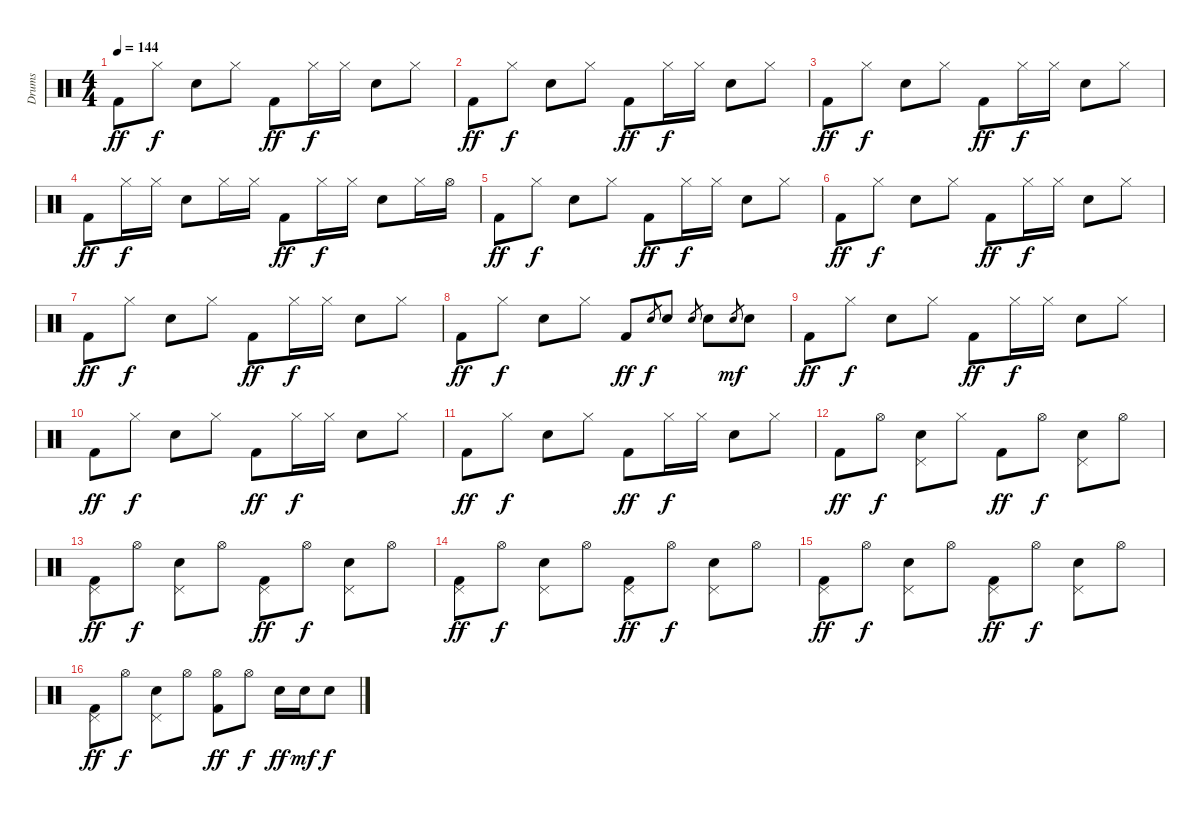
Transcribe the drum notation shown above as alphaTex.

\track ("Drums" "Drums") {instrument percussion}
\staff {score}
\articulation defaults
\ts (4 4)
\tempo 144
\clef neutral
\ks c "Kick (hit) 2".8{dy ff} "Hi-Hat (closed)".8{dy f} "Snare (hit) 2".8 "Hi-Hat (closed)".8 "Kick (hit) 2".8{dy ff} "Hi-Hat (closed)".16{dy f} "Hi-Hat (closed)".16 "Snare (hit) 2".8 "Hi-Hat (closed)".8
|
"Kick (hit) 2".8{dy ff} "Hi-Hat (closed)".8{dy f} "Snare (hit) 2".8 "Hi-Hat (closed)".8 "Kick (hit) 2".8{dy ff} "Hi-Hat (closed)".16{dy f} "Hi-Hat (closed)".16 "Snare (hit) 2".8 "Hi-Hat (closed)".8 |
"Kick (hit) 2".8{dy ff} "Hi-Hat (closed)".8{dy f} "Snare (hit) 2".8 "Hi-Hat (closed)".8 "Kick (hit) 2".8{dy ff} "Hi-Hat (closed)".16{dy f} "Hi-Hat (closed)".16 "Snare (hit) 2".8 "Hi-Hat (closed)".8 |
"Kick (hit) 2".8{dy ff} "Hi-Hat (closed)".16{dy f} "Hi-Hat (closed)".16 "Snare (hit) 2".8 "Hi-Hat (closed)".16 "Hi-Hat (closed)".16 "Kick (hit) 2".8{dy ff} "Hi-Hat (closed)".16{dy f} "Hi-Hat (closed)".16 "Snare (hit) 2".8 "Hi-Hat (closed)".16 "Hi-Hat (open)".16 |
"Kick (hit) 2".8{dy ff} "Hi-Hat (closed)".8{dy f} "Snare (hit) 2".8 "Hi-Hat (closed)".8 "Kick (hit) 2".8{dy ff} "Hi-Hat (closed)".16{dy f} "Hi-Hat (closed)".16 "Snare (hit) 2".8 "Hi-Hat (closed)".8 |
"Kick (hit) 2".8{dy ff} "Hi-Hat (closed)".8{dy f} "Snare (hit) 2".8 "Hi-Hat (closed)".8 "Kick (hit) 2".8{dy ff} "Hi-Hat (closed)".16{dy f} "Hi-Hat (closed)".16 "Snare (hit) 2".8 "Hi-Hat (closed)".8 |
"Kick (hit) 2".8{dy ff} "Hi-Hat (closed)".8{dy f} "Snare (hit) 2".8 "Hi-Hat (closed)".8 "Kick (hit) 2".8{dy ff} "Hi-Hat (closed)".16{dy f} "Hi-Hat (closed)".16 "Snare (hit) 2".8 "Hi-Hat (closed)".8 |
"Kick (hit) 2".8{dy ff} "Hi-Hat (closed)".8{dy f} "Snare (hit) 2".8 "Hi-Hat (closed)".8 "Kick (hit) 2".8{dy ff} "Snare (hit) 2".8{gr dy f} "Snare (hit) 2".8 "Snare (hit) 2".8{gr} "Snare (hit) 2".8 "Snare (hit) 2".8{gr dy mf} "Snare (hit) 2".8 |
"Kick (hit) 2".8{dy ff} "Hi-Hat (closed)".8{dy f} "Snare (hit) 2".8 "Hi-Hat (closed)".8 "Kick (hit) 2".8{dy ff} "Hi-Hat (closed)".16{dy f} "Hi-Hat (closed)".16 "Snare (hit) 2".8 "Hi-Hat (closed)".8 |
"Kick (hit) 2".8{dy ff} "Hi-Hat (closed)".8{dy f} "Snare (hit) 2".8 "Hi-Hat (closed)".8 "Kick (hit) 2".8{dy ff} "Hi-Hat (closed)".16{dy f} "Hi-Hat (closed)".16 "Snare (hit) 2".8 "Hi-Hat (closed)".8 |
"Kick (hit) 2".8{dy ff} "Hi-Hat (closed)".8{dy f} "Snare (hit) 2".8 "Hi-Hat (closed)".8 "Kick (hit) 2".8{dy ff} "Hi-Hat (closed)".16{dy f} "Hi-Hat (closed)".16 "Snare (hit) 2".8 "Hi-Hat (closed)".8 |
"Kick (hit) 2".8{dy ff} "Hi-Hat (open)".8{dy f} ("Pedal Hi-Hat (hit)" "Snare (hit) 2").8 "Hi-Hat (closed)".8 "Kick (hit) 2".8{dy ff} "Hi-Hat (open)".8{dy f} ("Pedal Hi-Hat (hit)" "Snare (hit) 2").8 "Hi-Hat (open)".8 |
("Pedal Hi-Hat (hit)" "Kick (hit) 2").8{dy ff} "Hi-Hat (open)".8{dy f} ("Pedal Hi-Hat (hit)" "Snare (hit) 2").8 "Hi-Hat (open)".8 ("Pedal Hi-Hat (hit)" "Kick (hit) 2").8{dy ff} "Hi-Hat (open)".8{dy f} ("Pedal Hi-Hat (hit)" "Snare (hit) 2").8 "Hi-Hat (open)".8 |
("Pedal Hi-Hat (hit)" "Kick (hit) 2").8{dy ff} "Hi-Hat (open)".8{dy f} ("Pedal Hi-Hat (hit)" "Snare (hit) 2").8 "Hi-Hat (open)".8 ("Pedal Hi-Hat (hit)" "Kick (hit) 2").8{dy ff} "Hi-Hat (open)".8{dy f} ("Pedal Hi-Hat (hit)" "Snare (hit) 2").8 "Hi-Hat (open)".8 |
("Pedal Hi-Hat (hit)" "Kick (hit) 2").8{dy ff} "Hi-Hat (open)".8{dy f} ("Pedal Hi-Hat (hit)" "Snare (hit) 2").8 "Hi-Hat (open)".8 ("Pedal Hi-Hat (hit)" "Kick (hit) 2").8{dy ff} "Hi-Hat (open)".8{dy f} ("Pedal Hi-Hat (hit)" "Snare (hit) 2").8 "Hi-Hat (open)".8 |
("Pedal Hi-Hat (hit)" "Kick (hit) 2").8{dy ff} "Hi-Hat (open)".8{dy f} ("Pedal Hi-Hat (hit)" "Snare (hit) 2").8 "Hi-Hat (open)".8 ("Hi-Hat (open)" "Kick (hit) 2").8{dy ff} "Hi-Hat (open)".8{dy f} "Snare (hit) 2".16{dy ff} "Snare (hit) 2".16{dy mf} "Snare (hit) 2".8{dy f}
